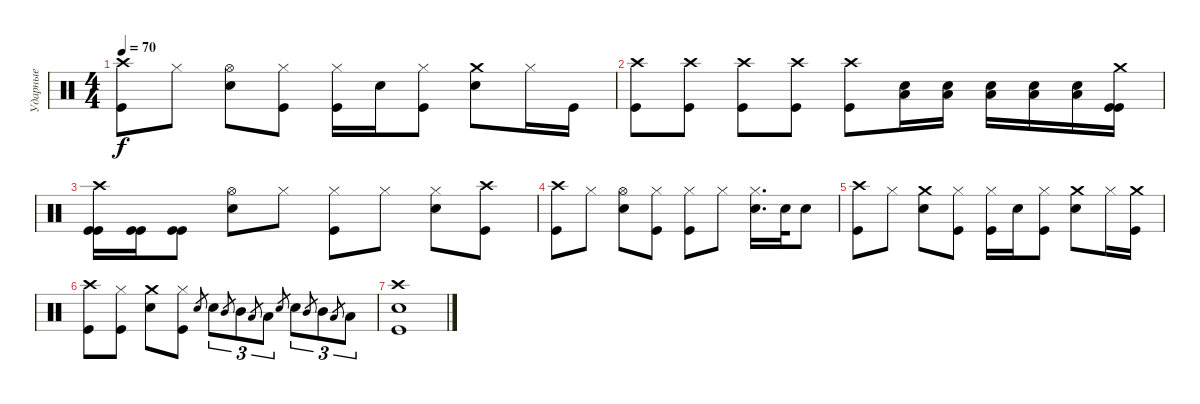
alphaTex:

\track ("Ударные" "Ударные") {instrument percussion}
\staff {score}
\articulation defaults
\ts (4 4)
\tempo 70
\clef neutral
\ks c
("Crash high (hit)" "Kick (hit)").8{dy f} "Hi-Hat (closed)".8 ("Hi-Hat (open)" "Snare (hit) 2").8 ("Hi-Hat (closed)" "Kick (hit)").8 ("Hi-Hat (closed)" "Kick (hit)").16 "Snare (hit) 2".16 ("Hi-Hat (closed)" "Kick (hit)").8 ("Crash medium (hit)" "Snare (hit) 2").8 "Hi-Hat (closed)".16 "Kick (hit)".16 |
("Crash high (hit)" "Kick (hit)").8 ("Crash high (hit)" "Kick (hit)").8 ("Crash high (hit)" "Kick (hit)").8 ("Crash high (hit)" "Kick (hit)").8 ("Crash high (hit)" "Kick (hit)").8 ("Snare (hit) 2" "Low Tom (hit)").16 ("Snare (hit) 2" "Low Tom (hit)").16 ("Snare (hit) 2" "Low Tom (hit)").16 ("Snare (hit) 2" "Low Tom (hit)").16 ("Snare (hit) 2" "Low Tom (hit)").16 ("Crash medium (hit)" "Kick (hit)" "Kick (hit)").16 |
("Crash high (hit)" "Kick (hit)" "Kick (hit)").16 ("Kick (hit)" "Kick (hit)").16 ("Kick (hit)" "Kick (hit)").8 ("Hi-Hat (open)" "Snare (hit) 2").8 "Hi-Hat (closed)".8 ("Hi-Hat (closed)" "Kick (hit)").8 "Hi-Hat (closed)".8 ("Hi-Hat (closed)" "Snare (hit) 2").8 ("Crash high (hit)" "Kick (hit)").8 |
("Crash high (hit)" "Kick (hit)").8 "Hi-Hat (closed)".8 ("Hi-Hat (open)" "Snare (hit) 2").8 ("Hi-Hat (closed)" "Kick (hit)").8 ("Hi-Hat (closed)" "Kick (hit)").8 "Hi-Hat (closed)".8 ("Hi-Hat (closed)" "Snare (hit) 2").16{d} "Snare (hit) 2".32 "Snare (hit) 2".8 |
("Crash high (hit)" "Kick (hit)").8 "Hi-Hat (closed)".8 ("Crash medium (hit)" "Snare (hit) 2").8 ("Hi-Hat (closed)" "Kick (hit)").8 ("Hi-Hat (closed)" "Kick (hit)").16 "Snare (hit) 2".16 ("Hi-Hat (closed)" "Kick (hit)").8 ("Crash medium (hit)" "Snare (hit) 2").8 "Hi-Hat (closed)".16 ("Crash medium (hit)" "Kick (hit)").16 |
("Crash high (hit)" "Kick (hit)").8 ("Hi-Hat (closed)" "Kick (hit)").8 ("Crash medium (hit)" "Snare (hit) 2").8 ("Hi-Hat (closed)" "Kick (hit)").8 "Snare (hit) 2".8{gr} "Snare (hit) 2".8{tu (3 2)} "Mid Tom (hit)".8{gr} "Mid Tom (hit)".8{tu (3 2)} "Low Tom (hit)".8{gr} "Low Tom (hit)".8{tu (3 2)} "Snare (hit) 2".8{gr} "Snare (hit) 2".8{tu (3 2)} "Mid Tom (hit)".8{gr} "Mid Tom (hit)".8{tu (3 2)} "Low Tom (hit)".8{gr} "Low Tom (hit)".8{tu (3 2)} |
("Crash high (hit)" "Snare (hit) 2" "Kick (hit)").1
